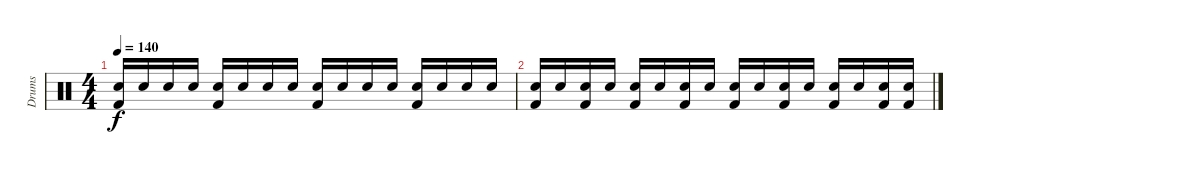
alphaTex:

\track ("Drums" "Drums") {instrument percussion}
\staff {score}
\articulation defaults
\ts (4 4)
\tempo 140
\clef neutral
\ks c
("Kick (hit) 2" "Snare (hit) 2").16{dy f} "Snare (hit) 2".16 "Snare (hit) 2".16 "Snare (hit) 2".16 ("Kick (hit) 2" "Snare (hit) 2").16 "Snare (hit) 2".16 "Snare (hit) 2".16 "Snare (hit) 2".16 ("Kick (hit) 2" "Snare (hit) 2").16 "Snare (hit) 2".16 "Snare (hit) 2".16 "Snare (hit) 2".16 ("Kick (hit) 2" "Snare (hit) 2").16 "Snare (hit) 2".16 "Snare (hit) 2".16 "Snare (hit) 2".16 |
("Kick (hit) 2" "Snare (hit) 2").16 "Snare (hit) 2".16 ("Kick (hit) 2" "Snare (hit) 2").16 "Snare (hit) 2".16 ("Kick (hit) 2" "Snare (hit) 2").16 "Snare (hit) 2".16 ("Kick (hit) 2" "Snare (hit) 2").16 "Snare (hit) 2".16 ("Kick (hit) 2" "Snare (hit) 2").16 "Snare (hit) 2".16 ("Kick (hit) 2" "Snare (hit) 2").16 "Snare (hit) 2".16 ("Kick (hit) 2" "Snare (hit) 2").16 "Snare (hit) 2".16 ("Kick (hit) 2" "Snare (hit) 2").16 ("Kick (hit) 2" "Snare (hit) 2").16
